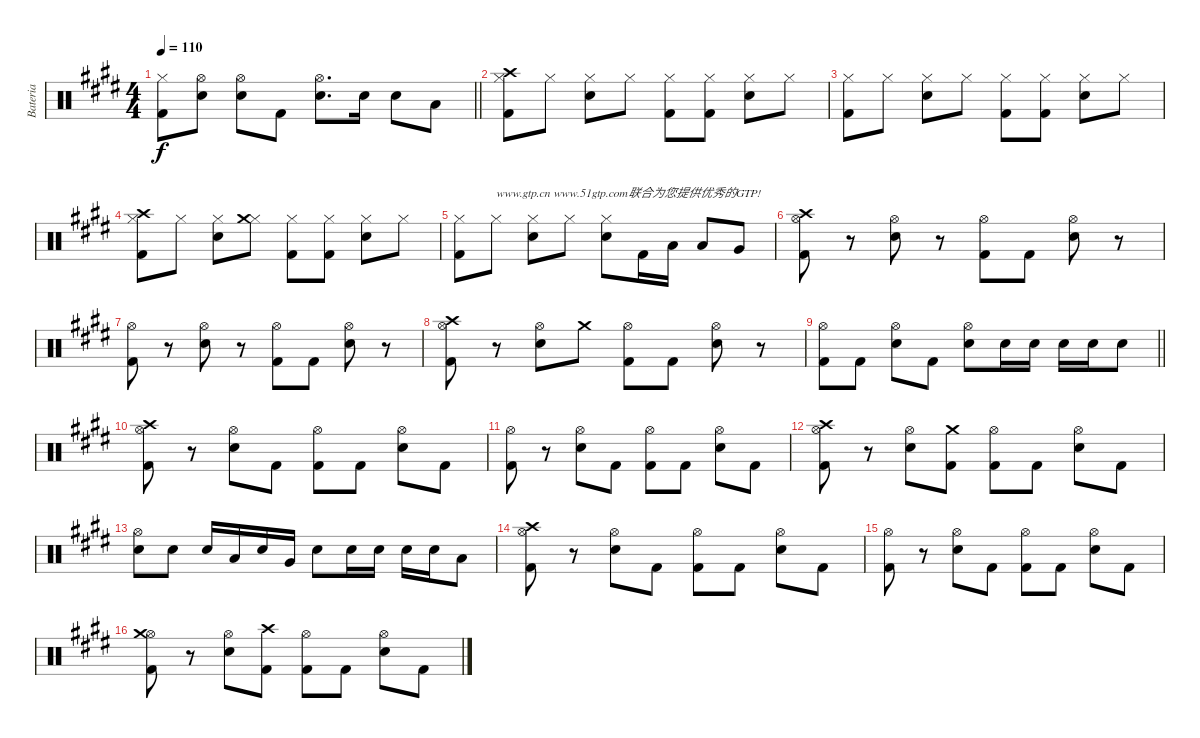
\track ("Bateria" "Bateria") {instrument percussion}
\staff {score}
\articulation defaults
\ts (4 4)
\tempo 110
\clef neutral
\barLineRight lightlight
\ks e
("Hi-Hat (closed)" "Kick (hit) 2").8{dy f} ("Hi-Hat (open)" "Snare (hit) 2").8 ("Hi-Hat (open)" "Snare (hit) 2").8 "Kick (hit) 2".8 ("Hi-Hat (open)" "Snare (hit) 2").8{d} "Snare (hit) 2".16 "Snare (hit) 2".8 "Low Tom (hit)".8 |
\section ("" "")
("Hi-Hat (closed)" "Kick (hit) 2" "Crash high (hit)").8 "Hi-Hat (closed)".8 ("Hi-Hat (closed)" "Snare (hit) 2").8 "Hi-Hat (closed)".8 ("Hi-Hat (closed)" "Kick (hit) 2").8 ("Hi-Hat (closed)" "Kick (hit) 2").8 ("Hi-Hat (closed)" "Snare (hit) 2").8 "Hi-Hat (closed)".8 |
("Hi-Hat (closed)" "Kick (hit) 2").8 "Hi-Hat (closed)".8 ("Hi-Hat (closed)" "Snare (hit) 2").8 "Hi-Hat (closed)".8 ("Hi-Hat (closed)" "Kick (hit) 2").8 ("Hi-Hat (closed)" "Kick (hit) 2").8 ("Hi-Hat (closed)" "Snare (hit) 2").8 "Hi-Hat (closed)".8 |
("Hi-Hat (closed)" "Kick (hit) 2" "Crash high (hit)").8 "Hi-Hat (closed)".8 ("Hi-Hat (closed)" "Snare (hit) 2").8 ("Hi-Hat (closed)" "Crash medium (hit)").8 ("Hi-Hat (closed)" "Kick (hit) 2").8 ("Hi-Hat (closed)" "Kick (hit) 2").8 ("Hi-Hat (closed)" "Snare (hit) 2").8 "Hi-Hat (closed)".8 |
("Hi-Hat (closed)" "Kick (hit) 2").8 "Hi-Hat (closed)".8{txt "www.gtp.cn www.51gtp.com联合为您提供优秀的GTP!"} ("Hi-Hat (closed)" "Snare (hit) 2").8 "Hi-Hat (closed)".8 ("Hi-Hat (closed)" "Snare (hit) 2").8 "Kick (hit) 2".16 "Low Tom (hit)".16 "Low Tom (hit)".8 "Very Low Tom (hit)".8 |
("Hi-Hat (open)" "Kick (hit) 2" "Crash high (hit)").8 r.8 ("Hi-Hat (open)" "Snare (hit) 2").8 r.8 ("Hi-Hat (open)" "Kick (hit) 2").8 "Kick (hit) 2".8 ("Hi-Hat (open)" "Snare (hit) 2").8 r.8 |
("Hi-Hat (open)" "Kick (hit) 2").8 r.8 ("Hi-Hat (open)" "Snare (hit) 2").8 r.8 ("Hi-Hat (open)" "Kick (hit) 2").8 "Kick (hit) 2".8 ("Hi-Hat (open)" "Snare (hit) 2").8 r.8 |
("Hi-Hat (open)" "Kick (hit) 2" "Crash high (hit)").8 r.8 ("Hi-Hat (open)" "Snare (hit) 2").8 "Crash medium (hit)".8 ("Hi-Hat (open)" "Kick (hit) 2").8 "Kick (hit) 2".8 ("Hi-Hat (open)" "Snare (hit) 2").8 r.8 |
\barLineRight lightlight
("Hi-Hat (open)" "Kick (hit) 2").8 "Kick (hit) 2".8 ("Hi-Hat (open)" "Snare (hit) 2").8 "Kick (hit) 2".8 ("Hi-Hat (open)" "Snare (hit) 2").8 "Snare (hit) 2".16 "Snare (hit) 2".16 "Snare (hit) 2".16 "Snare (hit) 2".16 "Snare (hit) 2".8 |
\section ("" "")
("Hi-Hat (open)" "Kick (hit) 2" "Crash high (hit)").8 r.8 ("Hi-Hat (open)" "Snare (hit) 2").8 "Kick (hit) 2".8 ("Hi-Hat (open)" "Kick (hit) 2").8 "Kick (hit) 2".8 ("Hi-Hat (open)" "Snare (hit) 2").8 "Kick (hit) 2".8 |
("Hi-Hat (open)" "Kick (hit) 2").8 r.8 ("Hi-Hat (open)" "Snare (hit) 2").8 "Kick (hit) 2".8 ("Hi-Hat (open)" "Kick (hit) 2").8 "Kick (hit) 2".8 ("Hi-Hat (open)" "Snare (hit) 2").8 "Kick (hit) 2".8 |
("Hi-Hat (open)" "Kick (hit) 2" "Crash high (hit)").8 r.8 ("Hi-Hat (open)" "Snare (hit) 2").8 ("Kick (hit) 2" "Crash medium (hit)").8 ("Hi-Hat (open)" "Kick (hit) 2").8 "Kick (hit) 2".8 ("Hi-Hat (open)" "Snare (hit) 2").8 "Kick (hit) 2".8 |
("Hi-Hat (open)" "Snare (hit) 2").8 "Snare (hit) 2".8 "Snare (hit) 2".16 "Low Tom (hit)".16 "Snare (hit) 2".16 "Very Low Tom (hit)".16 "Snare (hit) 2".8 "Snare (hit) 2".16 "Snare (hit) 2".16 "Snare (hit) 2".16 "Snare (hit) 2".16 "Low Tom (hit)".8 |
("Hi-Hat (open)" "Kick (hit) 2" "Crash high (hit)").8 r.8 ("Hi-Hat (open)" "Snare (hit) 2").8 "Kick (hit) 2".8 ("Hi-Hat (open)" "Kick (hit) 2").8 "Kick (hit) 2".8 ("Hi-Hat (open)" "Snare (hit) 2").8 "Kick (hit) 2".8 |
("Hi-Hat (open)" "Kick (hit) 2").8 r.8 ("Hi-Hat (open)" "Snare (hit) 2").8 "Kick (hit) 2".8 ("Hi-Hat (open)" "Kick (hit) 2").8 "Kick (hit) 2".8 ("Hi-Hat (open)" "Snare (hit) 2").8 "Kick (hit) 2".8 |
("Hi-Hat (open)" "Kick (hit) 2" "Crash medium (hit)").8 r.8 ("Hi-Hat (open)" "Snare (hit) 2").8 ("Kick (hit) 2" "Crash high (hit)").8 ("Hi-Hat (open)" "Kick (hit) 2").8 "Kick (hit) 2".8 ("Hi-Hat (open)" "Snare (hit) 2").8 "Kick (hit) 2".8
